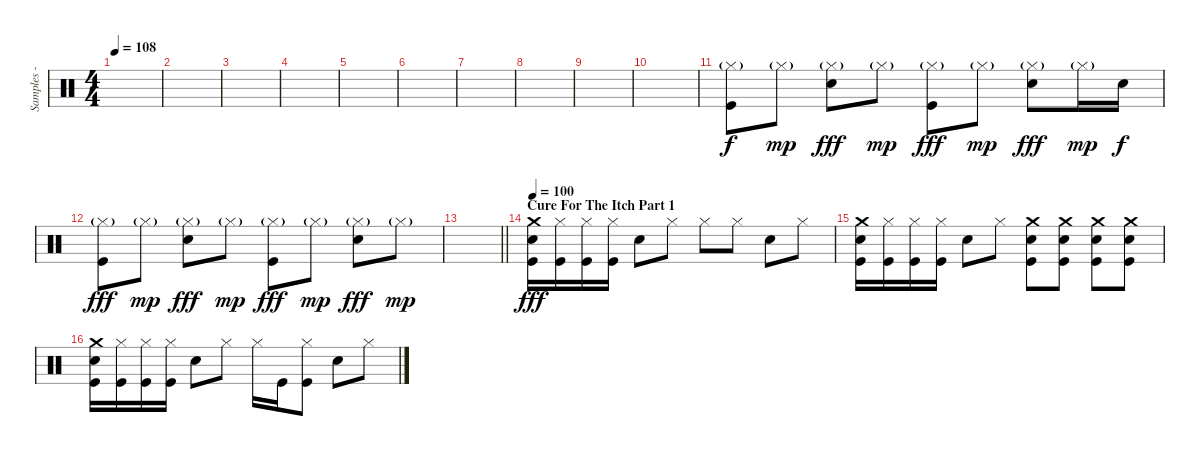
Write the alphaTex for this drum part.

\track ("Samples - Joe Hahn" "Samples - ") {instrument percussion}
\staff {score}
\articulation defaults
\ts (4 4)
\tempo 108
\clef neutral
\ks c
|
|
|
|
|
|
|
|
|
|
("Hi-Hat (closed)"{g} "Kick (hit)").8 "Hi-Hat (closed)"{g}.8{dy mp} ("Hi-Hat (closed)"{g} "Snare (hit) 2").8{dy fff} "Hi-Hat (closed)"{g}.8{dy mp} ("Hi-Hat (closed)"{g} "Kick (hit)").8{dy fff} "Hi-Hat (closed)"{g}.8{dy mp} ("Hi-Hat (closed)"{g} "Snare (hit) 2").8{dy fff} "Hi-Hat (closed)"{g}.16{dy mp} "Snare (hit) 2".16{dy f} |
("Hi-Hat (closed)"{g} "Kick (hit)").8{dy fff} "Hi-Hat (closed)"{g}.8{dy mp} ("Hi-Hat (closed)"{g} "Snare (hit) 2").8{dy fff} "Hi-Hat (closed)"{g}.8{dy mp} ("Hi-Hat (closed)"{g} "Kick (hit)").8{dy fff} "Hi-Hat (closed)"{g}.8{dy mp} ("Hi-Hat (closed)"{g} "Snare (hit) 2").8{dy fff} "Hi-Hat (closed)"{g}.8{dy mp} |
\barLineRight lightlight
|
\section ("" "Cure For The Itch Part 1")
\tempo 100
("Crash medium (hit)" "Snare (hit) 2" "Kick (hit)").16{dy fff volume 13} ("Hi-Hat (closed)" "Kick (hit)").16 ("Hi-Hat (closed)" "Kick (hit)").16 ("Hi-Hat (closed)" "Kick (hit)").16 "Snare (hit) 2".8 "Hi-Hat (closed)".8 "Hi-Hat (closed)".8 "Hi-Hat (closed)".8 "Snare (hit) 2".8 "Hi-Hat (closed)".8 |
("Crash medium (hit)" "Snare (hit) 2" "Kick (hit)").16 ("Hi-Hat (closed)" "Kick (hit)").16 ("Hi-Hat (closed)" "Kick (hit)").16 ("Hi-Hat (closed)" "Kick (hit)").16 "Snare (hit) 2".8 "Hi-Hat (closed)".8 ("Crash medium (hit)" "Snare (hit) 2" "Kick (hit)").8 ("Crash medium (hit)" "Snare (hit) 2" "Kick (hit)").8 ("Crash medium (hit)" "Snare (hit) 2" "Kick (hit)").8 ("Crash medium (hit)" "Snare (hit) 2" "Kick (hit)").8 |
("Crash medium (hit)" "Snare (hit) 2" "Kick (hit)").16 ("Hi-Hat (closed)" "Kick (hit)").16 ("Hi-Hat (closed)" "Kick (hit)").16 ("Hi-Hat (closed)" "Kick (hit)").16 "Snare (hit) 2".8 "Hi-Hat (closed)".8 "Hi-Hat (closed)".16 "Kick (hit)".16 ("Hi-Hat (closed)" "Kick (hit)").8 "Snare (hit) 2".8 "Hi-Hat (closed)".8
